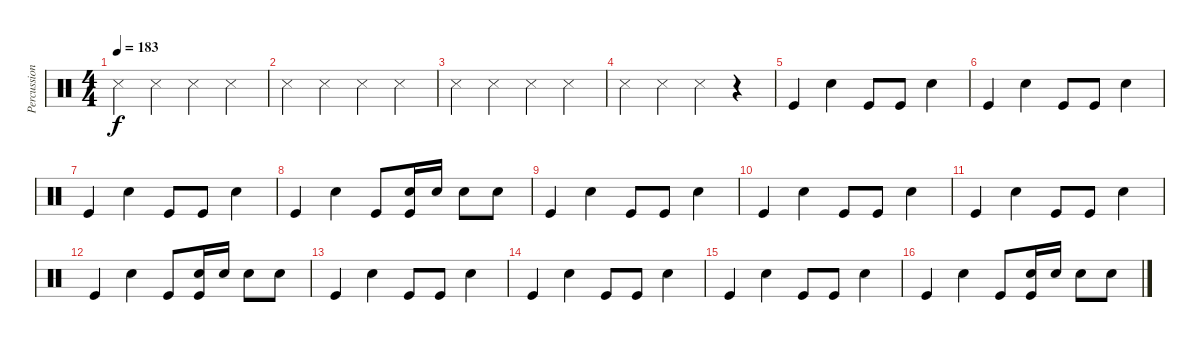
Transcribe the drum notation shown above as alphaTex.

\track ("Percussion" "Percussion") {instrument percussion}
\staff {score}
\articulation defaults
\ts (4 4)
\tempo 183
\clef neutral
\ks c "Snare (side stick) 3".4{dy f} "Snare (side stick) 3".4 "Snare (side stick) 3".4 "Snare (side stick) 3".4
|
"Snare (side stick) 3".4 "Snare (side stick) 3".4 "Snare (side stick) 3".4 "Snare (side stick) 3".4 |
"Snare (side stick) 3".4 "Snare (side stick) 3".4 "Snare (side stick) 3".4 "Snare (side stick) 3".4 |
"Snare (side stick) 3".4 "Snare (side stick) 3".4 "Snare (side stick) 3".4 r.4 |
"Kick (hit)".4 "Electric Snare (hit)".4 "Kick (hit)".8 "Kick (hit)".8 "Electric Snare (hit)".4 |
"Kick (hit)".4 "Electric Snare (hit)".4 "Kick (hit)".8 "Kick (hit)".8 "Electric Snare (hit)".4 |
"Kick (hit)".4 "Electric Snare (hit)".4 "Kick (hit)".8 "Kick (hit)".8 "Electric Snare (hit)".4 |
"Kick (hit)".4 "Electric Snare (hit)".4 "Kick (hit)".8 ("Electric Snare (hit)" "Kick (hit)").16 "Electric Snare (hit)".16 "Electric Snare (hit)".8 "Electric Snare (hit)".8 |
"Kick (hit)".4 "Electric Snare (hit)".4 "Kick (hit)".8 "Kick (hit)".8 "Electric Snare (hit)".4 |
"Kick (hit)".4 "Electric Snare (hit)".4 "Kick (hit)".8 "Kick (hit)".8 "Electric Snare (hit)".4 |
"Kick (hit)".4 "Electric Snare (hit)".4 "Kick (hit)".8 "Kick (hit)".8 "Electric Snare (hit)".4 |
"Kick (hit)".4 "Electric Snare (hit)".4 "Kick (hit)".8 ("Electric Snare (hit)" "Kick (hit)").16 "Electric Snare (hit)".16 "Electric Snare (hit)".8 "Electric Snare (hit)".8 |
"Kick (hit)".4 "Electric Snare (hit)".4 "Kick (hit)".8 "Kick (hit)".8 "Electric Snare (hit)".4 |
"Kick (hit)".4 "Electric Snare (hit)".4 "Kick (hit)".8 "Kick (hit)".8 "Electric Snare (hit)".4 |
"Kick (hit)".4 "Electric Snare (hit)".4 "Kick (hit)".8 "Kick (hit)".8 "Electric Snare (hit)".4 |
"Kick (hit)".4 "Electric Snare (hit)".4 "Kick (hit)".8 ("Electric Snare (hit)" "Kick (hit)").16 "Electric Snare (hit)".16 "Electric Snare (hit)".8 "Electric Snare (hit)".8
